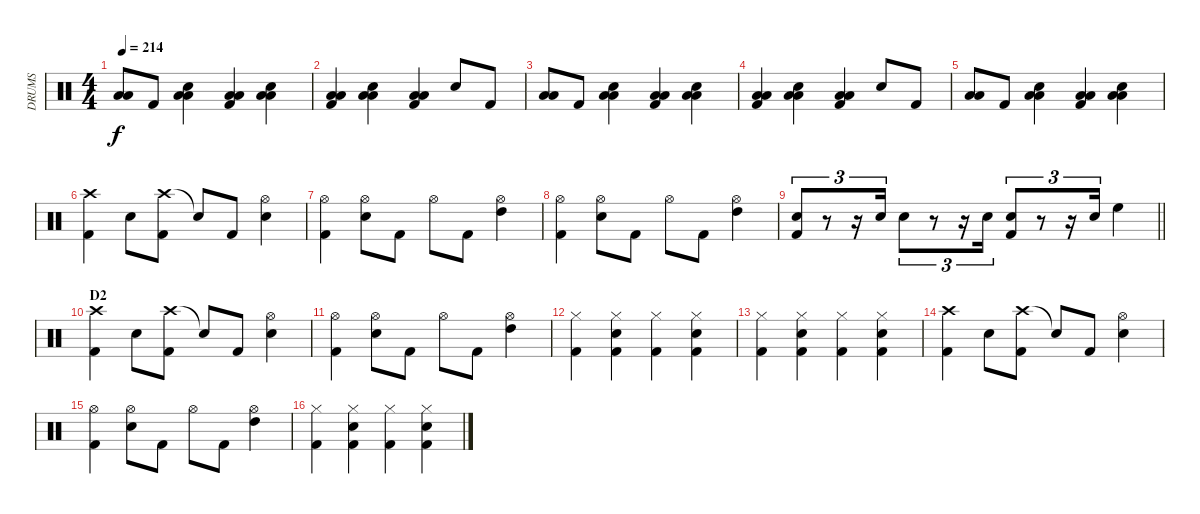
\track ("DRUMS" "DRUMS") {instrument percussion}
\staff {score}
\articulation defaults
\ts (4 4)
\tempo 214
\clef neutral
\ks c
("Low Tom (hit)" "Low Tom (hit)").8{dy f} "Kick (hit) 2".8 ("Low Tom (hit)" "Snare (hit) 2" "Low Tom (hit)").4 ("Low Tom (hit)" "Kick (hit) 2" "Low Tom (hit)").4 ("Low Tom (hit)" "Snare (hit) 2" "Low Tom (hit)").4 |
("Low Tom (hit)" "Kick (hit) 2" "Low Tom (hit)").4 ("Low Tom (hit)" "Snare (hit) 2" "Low Tom (hit)").4 ("Low Tom (hit)" "Kick (hit) 2" "Low Tom (hit)").4 "Snare (hit) 2".8 "Kick (hit) 2".8 |
("Low Tom (hit)" "Low Tom (hit)").8 "Kick (hit) 2".8 ("Low Tom (hit)" "Snare (hit) 2" "Low Tom (hit)").4 ("Low Tom (hit)" "Kick (hit) 2" "Low Tom (hit)").4 ("Low Tom (hit)" "Snare (hit) 2" "Low Tom (hit)").4 |
("Low Tom (hit)" "Kick (hit) 2" "Low Tom (hit)").4 ("Low Tom (hit)" "Snare (hit) 2" "Low Tom (hit)").4 ("Low Tom (hit)" "Kick (hit) 2" "Low Tom (hit)").4 "Snare (hit) 2".8 "Kick (hit) 2".8 |
("Low Tom (hit)" "Low Tom (hit)").8 "Kick (hit) 2".8 ("Low Tom (hit)" "Snare (hit) 2" "Low Tom (hit)").4 ("Low Tom (hit)" "Kick (hit) 2" "Low Tom (hit)").4 ("Low Tom (hit)" "Snare (hit) 2" "Low Tom (hit)").4 |
("Crash high (hit)" "Kick (hit) 2").4 "Snare (hit) 2".8 ("Crash high (hit)" "Kick (hit) 2").8 "Snare (hit)"{t}.8 "Kick (hit) 2".8 ("Hi-Hat (open)" "Snare (hit) 2").4 |
("Hi-Hat (open)" "Kick (hit) 2").4 ("Hi-Hat (open)" "Snare (hit) 2").8 "Kick (hit) 2".8 "Hi-Hat (open)".8 "Kick (hit) 2".8 ("Hi-Hat (open)" "High Tom (hit)").4 |
("Hi-Hat (open)" "Kick (hit) 2").4 ("Hi-Hat (open)" "Snare (hit) 2").8 "Kick (hit) 2".8 "Hi-Hat (open)".8 "Kick (hit) 2".8 ("Hi-Hat (open)" "High Tom (hit)").4 |
\barLineRight lightlight
("Snare (hit) 2" "Kick (hit) 2").8{tu (3 2)} r.8{tu (3 2)} r.16{tu (3 2)} "Snare (hit) 2".16{tu (3 2)} "Snare (hit) 2".8{tu (3 2)} r.8{tu (3 2)} r.16{tu (3 2)} "Snare (hit) 2".16{tu (3 2)} ("Snare (hit) 2" "Kick (hit) 2").8{tu (3 2)} r.8{tu (3 2)} r.16{tu (3 2)} "Snare (hit) 2".16{tu (3 2)} "High Floor Tom (hit)".4 |
\section ("" "D2")
("Crash high (hit)" "Kick (hit) 2").4 "Snare (hit) 2".8 ("Crash high (hit)" "Kick (hit) 2").8 "Snare (hit)"{t}.8 "Kick (hit) 2".8 ("Hi-Hat (open)" "Snare (hit) 2").4 |
("Hi-Hat (open)" "Kick (hit) 2").4 ("Hi-Hat (open)" "Snare (hit) 2").8 "Kick (hit) 2".8 "Hi-Hat (open)".8 "Kick (hit) 2".8 ("Hi-Hat (open)" "High Tom (hit)").4 |
("Hi-Hat (closed)" "Kick (hit) 2").4 ("Hi-Hat (closed)" "Kick (hit) 2" "Snare (hit) 2").4 ("Hi-Hat (closed)" "Kick (hit) 2").4 ("Hi-Hat (closed)" "Kick (hit) 2" "Snare (hit) 2").4 |
("Hi-Hat (closed)" "Kick (hit) 2").4 ("Hi-Hat (closed)" "Kick (hit) 2" "Snare (hit) 2").4 ("Hi-Hat (closed)" "Kick (hit) 2").4 ("Hi-Hat (closed)" "Kick (hit) 2" "Snare (hit) 2").4 |
("Crash high (hit)" "Kick (hit) 2").4 "Snare (hit) 2".8 ("Crash high (hit)" "Kick (hit) 2").8 "Snare (hit)"{t}.8 "Kick (hit) 2".8 ("Hi-Hat (open)" "Snare (hit) 2").4 |
("Hi-Hat (open)" "Kick (hit) 2").4 ("Hi-Hat (open)" "Snare (hit) 2").8 "Kick (hit) 2".8 "Hi-Hat (open)".8 "Kick (hit) 2".8 ("Hi-Hat (open)" "High Tom (hit)").4 |
("Hi-Hat (closed)" "Kick (hit) 2").4 ("Hi-Hat (closed)" "Kick (hit) 2" "Snare (hit) 2").4 ("Hi-Hat (closed)" "Kick (hit) 2").4 ("Hi-Hat (closed)" "Kick (hit) 2" "Snare (hit) 2").4
